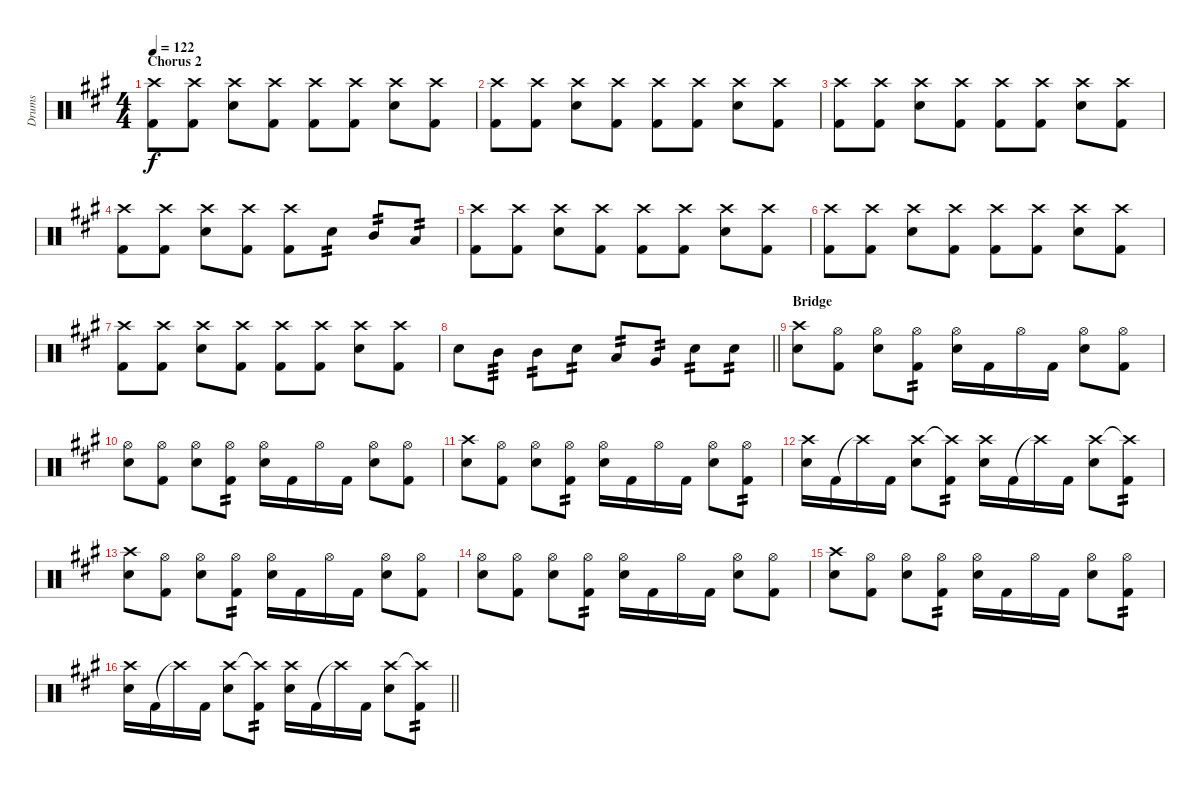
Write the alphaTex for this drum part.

\track ("Drums" "Drums") {instrument percussion}
\staff {score}
\articulation defaults
\ts (4 4)
\section ("" "Chorus 2")
\tempo 122
\clef neutral
\ks f#minor
("Crash high (hit)" "Kick (hit) 2").8{dy f} ("Crash high (hit)" "Kick (hit) 2").8 ("Crash high (hit)" "Snare (hit) 2").8 ("Crash high (hit)" "Kick (hit) 2").8 ("Crash high (hit)" "Kick (hit) 2").8 ("Crash high (hit)" "Kick (hit) 2").8 ("Crash high (hit)" "Snare (hit) 2").8 ("Crash high (hit)" "Kick (hit) 2").8 |
("Crash high (hit)" "Kick (hit) 2").8 ("Crash high (hit)" "Kick (hit) 2").8 ("Crash high (hit)" "Snare (hit) 2").8 ("Crash high (hit)" "Kick (hit) 2").8 ("Crash high (hit)" "Kick (hit) 2").8 ("Crash high (hit)" "Kick (hit) 2").8 ("Crash high (hit)" "Snare (hit) 2").8 ("Crash high (hit)" "Kick (hit) 2").8 |
("Crash high (hit)" "Kick (hit) 2").8 ("Crash high (hit)" "Kick (hit) 2").8 ("Crash high (hit)" "Snare (hit) 2").8 ("Crash high (hit)" "Kick (hit) 2").8 ("Crash high (hit)" "Kick (hit) 2").8 ("Crash high (hit)" "Kick (hit) 2").8 ("Crash high (hit)" "Snare (hit) 2").8 ("Crash high (hit)" "Kick (hit) 2").8 |
("Crash high (hit)" "Kick (hit) 2").8 ("Crash high (hit)" "Kick (hit) 2").8 ("Crash high (hit)" "Snare (hit) 2").8 ("Crash high (hit)" "Kick (hit) 2").8 ("Crash high (hit)" "Kick (hit) 2").8 "Snare (hit) 2".8{tp 2} "Mid Tom (hit)".8{tp 2} "Low Tom (hit)".8{tp 2} |
("Crash high (hit)" "Kick (hit) 2").8 ("Crash high (hit)" "Kick (hit) 2").8 ("Crash high (hit)" "Snare (hit) 2").8 ("Crash high (hit)" "Kick (hit) 2").8 ("Crash high (hit)" "Kick (hit) 2").8 ("Crash high (hit)" "Kick (hit) 2").8 ("Crash high (hit)" "Snare (hit) 2").8 ("Crash high (hit)" "Kick (hit) 2").8 |
("Crash high (hit)" "Kick (hit) 2").8 ("Crash high (hit)" "Kick (hit) 2").8 ("Crash high (hit)" "Snare (hit) 2").8 ("Crash high (hit)" "Kick (hit) 2").8 ("Crash high (hit)" "Kick (hit) 2").8 ("Crash high (hit)" "Kick (hit) 2").8 ("Crash high (hit)" "Snare (hit) 2").8 ("Crash high (hit)" "Kick (hit) 2").8 |
("Crash high (hit)" "Kick (hit) 2").8 ("Crash high (hit)" "Kick (hit) 2").8 ("Crash high (hit)" "Snare (hit) 2").8 ("Crash high (hit)" "Kick (hit) 2").8 ("Crash high (hit)" "Kick (hit) 2").8 ("Crash high (hit)" "Kick (hit) 2").8 ("Crash high (hit)" "Snare (hit) 2").8 ("Crash high (hit)" "Kick (hit) 2").8 |
\barLineRight lightlight "Snare (hit) 2".8 "Mid Tom (hit)".8{tp 3} "Mid Tom (hit)".8{tp 2} "Snare (hit) 2".8{tp 2} "Low Tom (hit)".8{tp 2} "Very Low Tom (hit)".8{tp 2} "Snare (hit) 2".8{tp 2} "Snare (hit) 2".8{tp 2}
|
\section ("" "Bridge")
("Crash high (hit)" "Snare (hit) 2").8 ("Hi-Hat (open)" "Kick (hit) 2").8 ("Hi-Hat (open)" "Snare (hit) 2").8 ("Hi-Hat (open)" "Kick (hit) 2").8{tp 2} ("Hi-Hat (open)" "Snare (hit) 2").16 "Kick (hit) 2".16 "Hi-Hat (open)".16 "Kick (hit) 2".16 ("Hi-Hat (open)" "Snare (hit) 2").8 ("Hi-Hat (open)" "Kick (hit) 2").8 |
("Hi-Hat (open)" "Snare (hit) 2").8 ("Hi-Hat (open)" "Kick (hit) 2").8 ("Hi-Hat (open)" "Snare (hit) 2").8 ("Hi-Hat (open)" "Kick (hit) 2").8{tp 2} ("Hi-Hat (open)" "Snare (hit) 2").16 "Kick (hit) 2".16 "Hi-Hat (open)".16 "Kick (hit) 2".16 ("Hi-Hat (open)" "Snare (hit) 2").8 ("Hi-Hat (open)" "Kick (hit) 2").8 |
("Crash high (hit)" "Snare (hit) 2").8 ("Hi-Hat (open)" "Kick (hit) 2").8 ("Hi-Hat (open)" "Snare (hit) 2").8 ("Hi-Hat (open)" "Kick (hit) 2").8{tp 2} ("Hi-Hat (open)" "Snare (hit) 2").16 "Kick (hit) 2".16 "Hi-Hat (open)".16 "Kick (hit) 2".16 ("Hi-Hat (open)" "Snare (hit) 2").8 ("Hi-Hat (open)" "Kick (hit) 2").8{tp 2} |
("Crash high (hit)" "Snare (hit) 2").16 "Kick (hit) 2".16 "Crash high (hit)"{t}.16 "Kick (hit) 2".16 ("Crash high (hit)" "Snare (hit) 2").8 ("Crash high (hit)"{t} "Kick (hit) 2").8{tp 2} ("Crash high (hit)" "Snare (hit) 2").16 "Kick (hit) 2".16 "Crash high (hit)"{t}.16 "Kick (hit) 2".16 ("Crash high (hit)" "Snare (hit) 2").8 ("Crash high (hit)"{t} "Kick (hit) 2").8{tp 2} |
("Crash high (hit)" "Snare (hit) 2").8 ("Hi-Hat (open)" "Kick (hit) 2").8 ("Hi-Hat (open)" "Snare (hit) 2").8 ("Hi-Hat (open)" "Kick (hit) 2").8{tp 2} ("Hi-Hat (open)" "Snare (hit) 2").16 "Kick (hit) 2".16 "Hi-Hat (open)".16 "Kick (hit) 2".16 ("Hi-Hat (open)" "Snare (hit) 2").8 ("Hi-Hat (open)" "Kick (hit) 2").8 |
("Hi-Hat (open)" "Snare (hit) 2").8 ("Hi-Hat (open)" "Kick (hit) 2").8 ("Hi-Hat (open)" "Snare (hit) 2").8 ("Hi-Hat (open)" "Kick (hit) 2").8{tp 2} ("Hi-Hat (open)" "Snare (hit) 2").16 "Kick (hit) 2".16 "Hi-Hat (open)".16 "Kick (hit) 2".16 ("Hi-Hat (open)" "Snare (hit) 2").8 ("Hi-Hat (open)" "Kick (hit) 2").8 |
("Crash high (hit)" "Snare (hit) 2").8 ("Hi-Hat (open)" "Kick (hit) 2").8 ("Hi-Hat (open)" "Snare (hit) 2").8 ("Hi-Hat (open)" "Kick (hit) 2").8{tp 2} ("Hi-Hat (open)" "Snare (hit) 2").16 "Kick (hit) 2".16 "Hi-Hat (open)".16 "Kick (hit) 2".16 ("Hi-Hat (open)" "Snare (hit) 2").8 ("Hi-Hat (open)" "Kick (hit) 2").8{tp 2} |
\barLineRight lightlight
("Crash high (hit)" "Snare (hit) 2").16 "Kick (hit) 2".16 "Crash high (hit)"{t}.16 "Kick (hit) 2".16 ("Crash high (hit)" "Snare (hit) 2").8 ("Crash high (hit)"{t} "Kick (hit) 2").8{tp 2} ("Crash high (hit)" "Snare (hit) 2").16 "Kick (hit) 2".16 "Crash high (hit)"{t}.16 "Kick (hit) 2".16 ("Crash high (hit)" "Snare (hit) 2").8 ("Crash high (hit)"{t} "Kick (hit) 2").8{tp 2}
